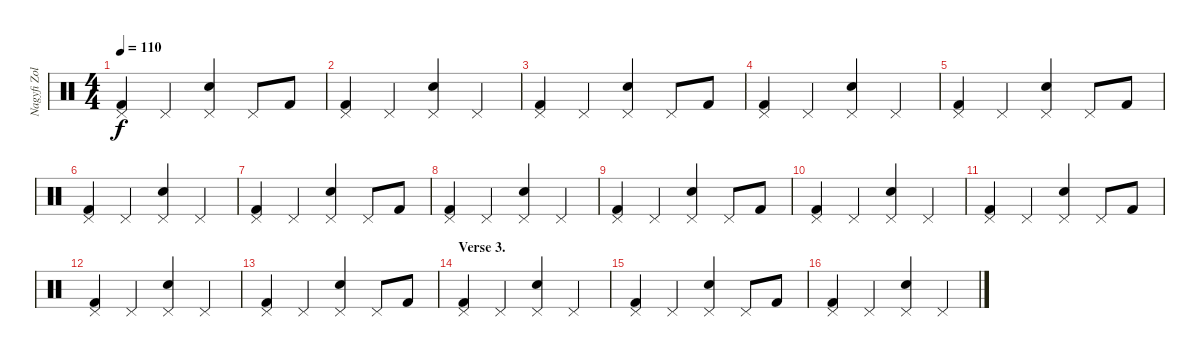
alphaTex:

\track ("Nagyfi Zoltán (dob)" "Nagyfi Zol") {instrument percussion}
\staff {score}
\articulation defaults
\ts (4 4)
\tempo 110
\clef neutral
\ks c
("Pedal Hi-Hat (hit)" "Kick (hit) 2").4{dy f} "Pedal Hi-Hat (hit)".4 ("Pedal Hi-Hat (hit)" "Snare (hit) 2").4 "Pedal Hi-Hat (hit)".8 "Kick (hit) 2".8 |
("Pedal Hi-Hat (hit)" "Kick (hit) 2").4 "Pedal Hi-Hat (hit)".4 ("Pedal Hi-Hat (hit)" "Snare (hit) 2").4 "Pedal Hi-Hat (hit)".4 |
("Pedal Hi-Hat (hit)" "Kick (hit) 2").4 "Pedal Hi-Hat (hit)".4 ("Pedal Hi-Hat (hit)" "Snare (hit) 2").4 "Pedal Hi-Hat (hit)".8 "Kick (hit) 2".8 |
("Pedal Hi-Hat (hit)" "Kick (hit) 2").4 "Pedal Hi-Hat (hit)".4 ("Pedal Hi-Hat (hit)" "Snare (hit) 2").4 "Pedal Hi-Hat (hit)".4 |
("Pedal Hi-Hat (hit)" "Kick (hit) 2").4 "Pedal Hi-Hat (hit)".4 ("Pedal Hi-Hat (hit)" "Snare (hit) 2").4 "Pedal Hi-Hat (hit)".8 "Kick (hit) 2".8 |
("Pedal Hi-Hat (hit)" "Kick (hit) 2").4 "Pedal Hi-Hat (hit)".4 ("Pedal Hi-Hat (hit)" "Snare (hit) 2").4 "Pedal Hi-Hat (hit)".4 |
("Pedal Hi-Hat (hit)" "Kick (hit) 2").4 "Pedal Hi-Hat (hit)".4 ("Pedal Hi-Hat (hit)" "Snare (hit) 2").4 "Pedal Hi-Hat (hit)".8 "Kick (hit) 2".8 |
("Pedal Hi-Hat (hit)" "Kick (hit) 2").4 "Pedal Hi-Hat (hit)".4 ("Pedal Hi-Hat (hit)" "Snare (hit) 2").4 "Pedal Hi-Hat (hit)".4 |
("Pedal Hi-Hat (hit)" "Kick (hit) 2").4 "Pedal Hi-Hat (hit)".4 ("Pedal Hi-Hat (hit)" "Snare (hit) 2").4 "Pedal Hi-Hat (hit)".8 "Kick (hit) 2".8 |
("Pedal Hi-Hat (hit)" "Kick (hit) 2").4 "Pedal Hi-Hat (hit)".4 ("Pedal Hi-Hat (hit)" "Snare (hit) 2").4 "Pedal Hi-Hat (hit)".4 |
("Pedal Hi-Hat (hit)" "Kick (hit) 2").4 "Pedal Hi-Hat (hit)".4 ("Pedal Hi-Hat (hit)" "Snare (hit) 2").4 "Pedal Hi-Hat (hit)".8 "Kick (hit) 2".8 |
("Pedal Hi-Hat (hit)" "Kick (hit) 2").4 "Pedal Hi-Hat (hit)".4 ("Pedal Hi-Hat (hit)" "Snare (hit) 2").4 "Pedal Hi-Hat (hit)".4 |
("Pedal Hi-Hat (hit)" "Kick (hit) 2").4 "Pedal Hi-Hat (hit)".4 ("Pedal Hi-Hat (hit)" "Snare (hit) 2").4 "Pedal Hi-Hat (hit)".8 "Kick (hit) 2".8 |
\section ("" "Verse 3.")
("Pedal Hi-Hat (hit)" "Kick (hit) 2").4 "Pedal Hi-Hat (hit)".4 ("Pedal Hi-Hat (hit)" "Snare (hit) 2").4 "Pedal Hi-Hat (hit)".4 |
("Pedal Hi-Hat (hit)" "Kick (hit) 2").4 "Pedal Hi-Hat (hit)".4 ("Pedal Hi-Hat (hit)" "Snare (hit) 2").4 "Pedal Hi-Hat (hit)".8 "Kick (hit) 2".8 |
("Pedal Hi-Hat (hit)" "Kick (hit) 2").4 "Pedal Hi-Hat (hit)".4 ("Pedal Hi-Hat (hit)" "Snare (hit) 2").4 "Pedal Hi-Hat (hit)".4
